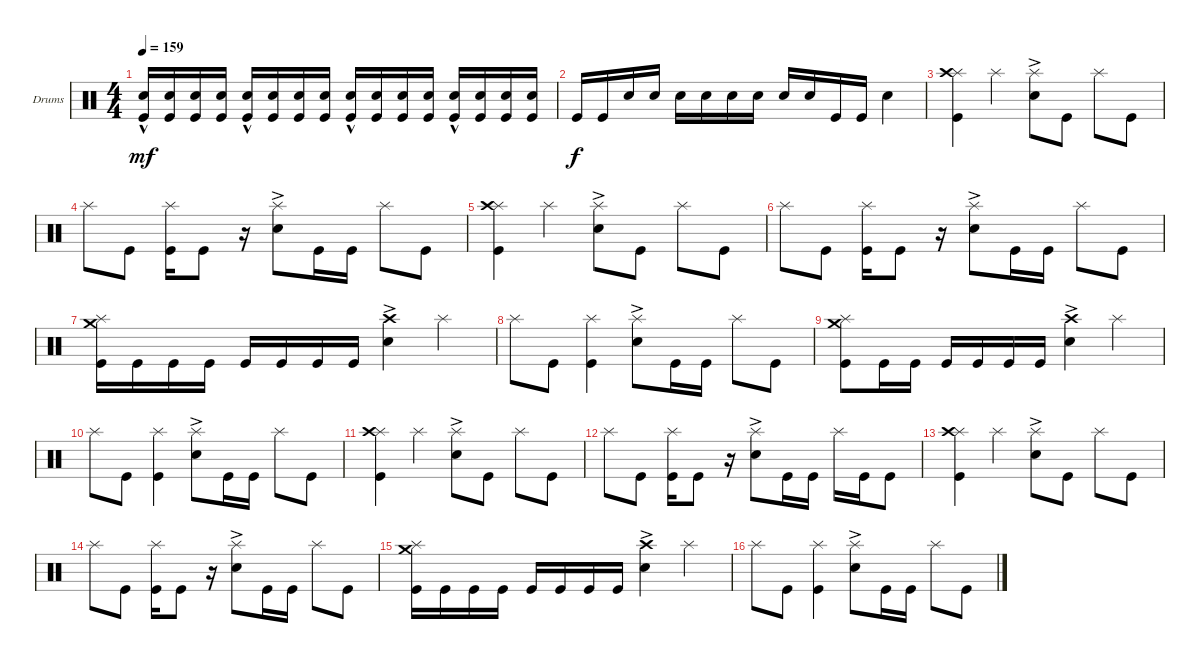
\defaultSystemsLayout 4
\bracketExtendMode groupsimilarinstruments
\firstSystemTrackNameOrientation horizontal
\otherSystemsTrackNameOrientation horizontal
\track ("Drumkit" "Drums") {instrument percussion}
\staff {score}
\articulation defaults
\ts (4 4)
\tempo 159
\clef neutral
\ks c
("Kick (hit)" "Snare (hit) 2"{hac}).16{dy mf} ("Kick (hit)" "Snare (hit) 2").16 ("Kick (hit)" "Snare (hit) 2").16 ("Kick (hit)" "Snare (hit) 2").16 ("Kick (hit)" "Snare (hit) 2"{hac}).16 ("Kick (hit)" "Snare (hit) 2").16 ("Kick (hit)" "Snare (hit) 2").16 ("Kick (hit)" "Snare (hit) 2").16 ("Kick (hit)" "Snare (hit) 2"{hac}).16 ("Kick (hit)" "Snare (hit) 2").16 ("Kick (hit)" "Snare (hit) 2").16 ("Kick (hit)" "Snare (hit) 2").16 ("Kick (hit)" "Snare (hit) 2"{hac}).16 ("Kick (hit)" "Snare (hit) 2").16 ("Kick (hit)" "Snare (hit) 2").16 ("Kick (hit)" "Snare (hit) 2").16 |
"Kick (hit)".16{dy f} "Kick (hit)".16 "Snare (hit) 2".16 "Snare (hit) 2".16 "Snare (hit) 2".16 "Snare (hit) 2".16 "Snare (hit) 2".16 "Snare (hit) 2".16 "Snare (hit) 2".16 "Snare (hit) 2".16 "Kick (hit)".16 "Kick (hit)".16 "Snare (hit) 2".4 |
("Kick (hit)" "Splash (hit)" "Crash high (hit)").4 "Splash (hit)".4 ("Splash (hit)" "Snare (hit) 2"{ac}).8 "Kick (hit)".8 "Splash (hit)".8 "Kick (hit)".8 |
"Splash (hit)".8 "Kick (hit)".8 ("Kick (hit)" "Splash (hit)").16 "Kick (hit)".8 r.16 ("Splash (hit)" "Snare (hit) 2"{ac}).8 "Kick (hit)".16 "Kick (hit)".16 "Splash (hit)".8 "Kick (hit)".8 |
("Kick (hit)" "Splash (hit)" "Crash high (hit)").4 "Splash (hit)".4 ("Splash (hit)" "Snare (hit) 2"{ac}).8 "Kick (hit)".8 "Splash (hit)".8 "Kick (hit)".8 |
"Splash (hit)".8 "Kick (hit)".8 ("Kick (hit)" "Splash (hit)").16 "Kick (hit)".8 r.16 ("Splash (hit)" "Snare (hit) 2"{ac}).8 "Kick (hit)".16 "Kick (hit)".16 "Splash (hit)".8 "Kick (hit)".8 |
("Kick (hit)" "Splash (hit)" "Crash medium (hit)").16 "Kick (hit)".16 "Kick (hit)".16 "Kick (hit)".16 "Kick (hit)".16 "Kick (hit)".16 "Kick (hit)".16 "Kick (hit)".16 ("Snare (hit) 2"{ac} "Crash high (hit)").4 "Splash (hit)".4 |
"Splash (hit)".8 "Kick (hit)".8 ("Kick (hit)" "Splash (hit)").4 ("Splash (hit)" "Snare (hit) 2"{ac}).8 "Kick (hit)".16 "Kick (hit)".16 "Splash (hit)".8 "Kick (hit)".8 |
("Kick (hit)" "Splash (hit)" "Crash medium (hit)").8 "Kick (hit)".16 "Kick (hit)".16 "Kick (hit)".16 "Kick (hit)".16 "Kick (hit)".16 "Kick (hit)".16 ("Snare (hit) 2"{ac} "Crash high (hit)").4 "Splash (hit)".4 |
"Splash (hit)".8 "Kick (hit)".8 ("Kick (hit)" "Splash (hit)").4 ("Splash (hit)" "Snare (hit) 2"{ac}).8 "Kick (hit)".16 "Kick (hit)".16 "Splash (hit)".8 "Kick (hit)".8 |
("Kick (hit)" "Splash (hit)" "Crash high (hit)").4 "Splash (hit)".4 ("Splash (hit)" "Snare (hit) 2"{ac}).8 "Kick (hit)".8 "Splash (hit)".8 "Kick (hit)".8 |
"Splash (hit)".8 "Kick (hit)".8 ("Kick (hit)" "Splash (hit)").16 "Kick (hit)".8 r.16 ("Splash (hit)" "Snare (hit) 2"{ac}).8 "Kick (hit)".16 "Kick (hit)".16 "Splash (hit)".16 "Kick (hit)".16 "Kick (hit)".8 |
("Kick (hit)" "Splash (hit)" "Crash high (hit)").4 "Splash (hit)".4 ("Splash (hit)" "Snare (hit) 2"{ac}).8 "Kick (hit)".8 "Splash (hit)".8 "Kick (hit)".8 |
"Splash (hit)".8 "Kick (hit)".8 ("Kick (hit)" "Splash (hit)").16 "Kick (hit)".8 r.16 ("Splash (hit)" "Snare (hit) 2"{ac}).8 "Kick (hit)".16 "Kick (hit)".16 "Splash (hit)".8 "Kick (hit)".8 |
("Kick (hit)" "Splash (hit)" "Crash medium (hit)").16 "Kick (hit)".16 "Kick (hit)".16 "Kick (hit)".16 "Kick (hit)".16 "Kick (hit)".16 "Kick (hit)".16 "Kick (hit)".16 ("Snare (hit) 2"{ac} "Crash high (hit)").4 "Splash (hit)".4 |
"Splash (hit)".8 "Kick (hit)".8 ("Kick (hit)" "Splash (hit)").4 ("Splash (hit)" "Snare (hit) 2"{ac}).8 "Kick (hit)".16 "Kick (hit)".16 "Splash (hit)".8 "Kick (hit)".8
